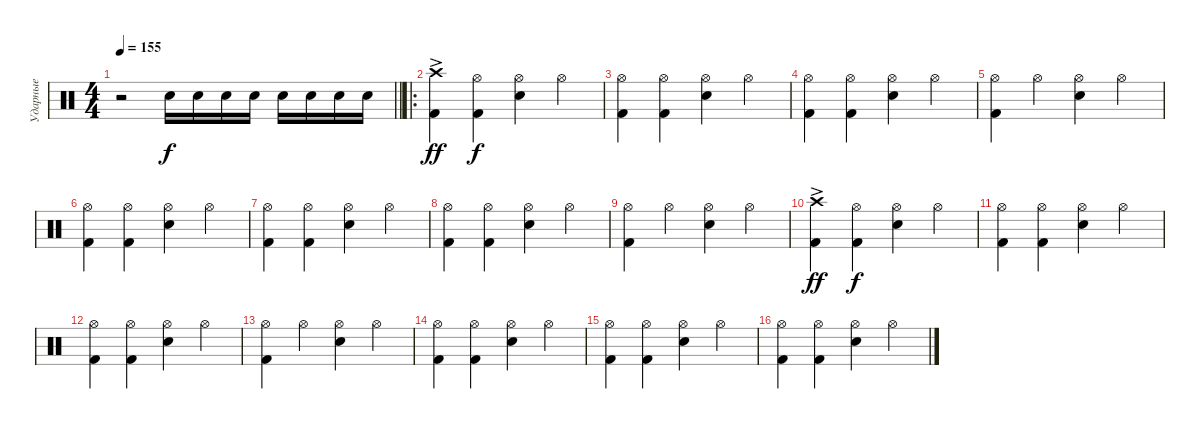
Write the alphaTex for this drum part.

\track ("Ударные" "Ударные") {instrument percussion}
\staff
\articulation defaults
\ts (4 4)
\tempo 155
\clef neutral
\barLineRight lightlight
\ks c
r.2{dy f} "Snare (hit) 2".16 "Snare (hit) 2".16 "Snare (hit) 2".16 "Snare (hit) 2".16 "Snare (hit) 2".16 "Snare (hit) 2".16 "Snare (hit) 2".16 "Snare (hit) 2".16 |
\ro
("Kick (hit) 2" "Crash high (hit)"{ac}).4{dy ff} ("Kick (hit) 2" "Hi-Hat (open)").4{dy f} ("Snare (hit) 2" "Hi-Hat (open)").4 "Hi-Hat (open)".4 |
("Kick (hit) 2" "Hi-Hat (open)").4 ("Kick (hit) 2" "Hi-Hat (open)").4 ("Snare (hit) 2" "Hi-Hat (open)").4 "Hi-Hat (open)".4 |
("Kick (hit) 2" "Hi-Hat (open)").4 ("Kick (hit) 2" "Hi-Hat (open)").4 ("Snare (hit) 2" "Hi-Hat (open)").4 "Hi-Hat (open)".4 |
("Kick (hit) 2" "Hi-Hat (open)").4 "Hi-Hat (open)".4 ("Snare (hit) 2" "Hi-Hat (open)").4 "Hi-Hat (open)".4 |
("Kick (hit) 2" "Hi-Hat (open)").4 ("Kick (hit) 2" "Hi-Hat (open)").4 ("Snare (hit) 2" "Hi-Hat (open)").4 "Hi-Hat (open)".4 |
("Kick (hit) 2" "Hi-Hat (open)").4 ("Kick (hit) 2" "Hi-Hat (open)").4 ("Snare (hit) 2" "Hi-Hat (open)").4 "Hi-Hat (open)".4 |
("Kick (hit) 2" "Hi-Hat (open)").4 ("Kick (hit) 2" "Hi-Hat (open)").4 ("Snare (hit) 2" "Hi-Hat (open)").4 "Hi-Hat (open)".4 |
("Kick (hit) 2" "Hi-Hat (open)").4 "Hi-Hat (open)".4 ("Snare (hit) 2" "Hi-Hat (open)").4 "Hi-Hat (open)".4 |
("Kick (hit) 2" "Crash high (hit)"{ac}).4{dy ff} ("Kick (hit) 2" "Hi-Hat (open)").4{dy f} ("Snare (hit) 2" "Hi-Hat (open)").4 "Hi-Hat (open)".4 |
("Kick (hit) 2" "Hi-Hat (open)").4 ("Kick (hit) 2" "Hi-Hat (open)").4 ("Snare (hit) 2" "Hi-Hat (open)").4 "Hi-Hat (open)".4 |
("Kick (hit) 2" "Hi-Hat (open)").4 ("Kick (hit) 2" "Hi-Hat (open)").4 ("Snare (hit) 2" "Hi-Hat (open)").4 "Hi-Hat (open)".4 |
("Kick (hit) 2" "Hi-Hat (open)").4 "Hi-Hat (open)".4 ("Snare (hit) 2" "Hi-Hat (open)").4 "Hi-Hat (open)".4 |
("Kick (hit) 2" "Hi-Hat (open)").4 ("Kick (hit) 2" "Hi-Hat (open)").4 ("Snare (hit) 2" "Hi-Hat (open)").4 "Hi-Hat (open)".4 |
("Kick (hit) 2" "Hi-Hat (open)").4 ("Kick (hit) 2" "Hi-Hat (open)").4 ("Snare (hit) 2" "Hi-Hat (open)").4 "Hi-Hat (open)".4 |
("Kick (hit) 2" "Hi-Hat (open)").4 ("Kick (hit) 2" "Hi-Hat (open)").4 ("Snare (hit) 2" "Hi-Hat (open)").4 "Hi-Hat (open)".4
